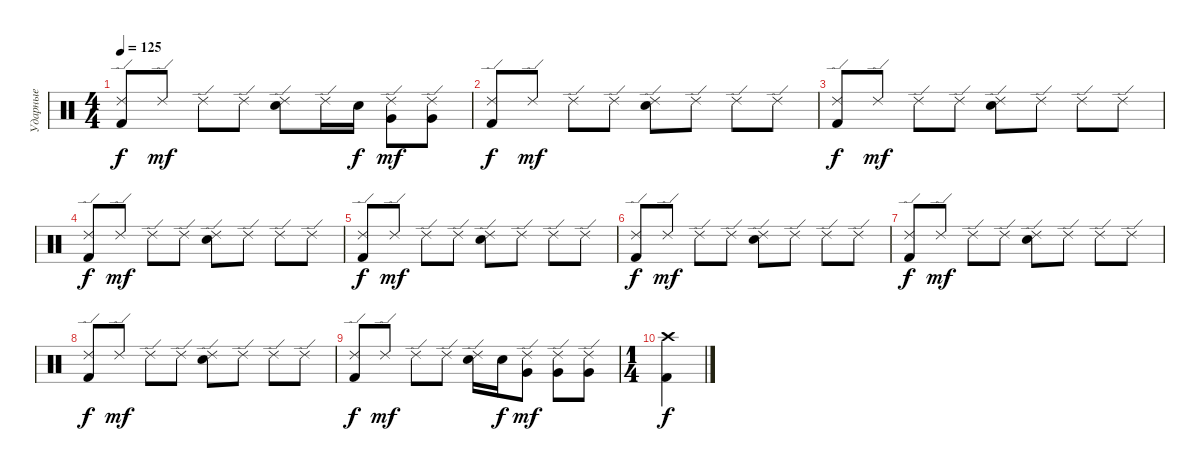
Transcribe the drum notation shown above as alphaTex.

\track ("Ударные" "Ударные") {instrument percussion}
\staff {score}
\articulation defaults
\ts (4 4)
\tempo 125
\clef neutral
\ks c
("Ride (edge) 2" "Kick (hit) 2").8{dy f} "Ride (edge) 2".8{dy mf} "Ride (edge) 2".8 "Ride (edge) 2".8 ("Ride (edge) 2" "Electric Snare (hit)").8 "Ride (edge) 2".16 "Electric Snare (hit)".16{dy f} ("Ride (edge) 2" "Very Low Tom (hit)").8{dy mf} ("Ride (edge) 2" "Very Low Tom (hit)").8 |
("Ride (edge) 2" "Kick (hit) 2").8{dy f volume 6} "Ride (edge) 2".8{dy mf} "Ride (edge) 2".8 "Ride (edge) 2".8 ("Ride (edge) 2" "Electric Snare (hit)").8 "Ride (edge) 2".8 "Ride (edge) 2".8 "Ride (edge) 2".8 |
("Ride (edge) 2" "Kick (hit) 2").8{dy f} "Ride (edge) 2".8{dy mf} "Ride (edge) 2".8 "Ride (edge) 2".8 ("Ride (edge) 2" "Electric Snare (hit)").8 "Ride (edge) 2".8 "Ride (edge) 2".8 "Ride (edge) 2".8 |
("Ride (edge) 2" "Kick (hit) 2").8{dy f volume 5} "Ride (edge) 2".8{dy mf} "Ride (edge) 2".8 "Ride (edge) 2".8 ("Ride (edge) 2" "Electric Snare (hit)").8 "Ride (edge) 2".8 "Ride (edge) 2".8 "Ride (edge) 2".8 |
("Ride (edge) 2" "Kick (hit) 2").8{dy f} "Ride (edge) 2".8{dy mf} "Ride (edge) 2".8 "Ride (edge) 2".8 ("Ride (edge) 2" "Electric Snare (hit)").8 "Ride (edge) 2".8 "Ride (edge) 2".8 "Ride (edge) 2".8 |
("Ride (edge) 2" "Kick (hit) 2").8{dy f volume 4} "Ride (edge) 2".8{dy mf} "Ride (edge) 2".8 "Ride (edge) 2".8 ("Ride (edge) 2" "Electric Snare (hit)").8 "Ride (edge) 2".8 "Ride (edge) 2".8 "Ride (edge) 2".8 |
("Ride (edge) 2" "Kick (hit) 2").8{dy f} "Ride (edge) 2".8{dy mf} "Ride (edge) 2".8 "Ride (edge) 2".8 ("Ride (edge) 2" "Electric Snare (hit)").8 "Ride (edge) 2".8 "Ride (edge) 2".8 "Ride (edge) 2".8 |
("Ride (edge) 2" "Kick (hit) 2").8{dy f volume 3} "Ride (edge) 2".8{dy mf} "Ride (edge) 2".8 "Ride (edge) 2".8 ("Ride (edge) 2" "Electric Snare (hit)").8 "Ride (edge) 2".8 "Ride (edge) 2".8 "Ride (edge) 2".8 |
("Ride (edge) 2" "Kick (hit) 2").8{dy f volume 0} "Ride (edge) 2".8{dy mf} "Ride (edge) 2".8 "Ride (edge) 2".8 ("Ride (edge) 2" "Electric Snare (hit)").16 "Electric Snare (hit)".16{dy f} ("Ride (edge) 2" "Very Low Tom (hit)").8{dy mf} ("Ride (edge) 2" "Very Low Tom (hit)").8 ("Ride (edge) 2" "Very Low Tom (hit)").8 |
\ts (1 4)
("Crash high (hit)" "Kick (hit) 2").4{dy f}
